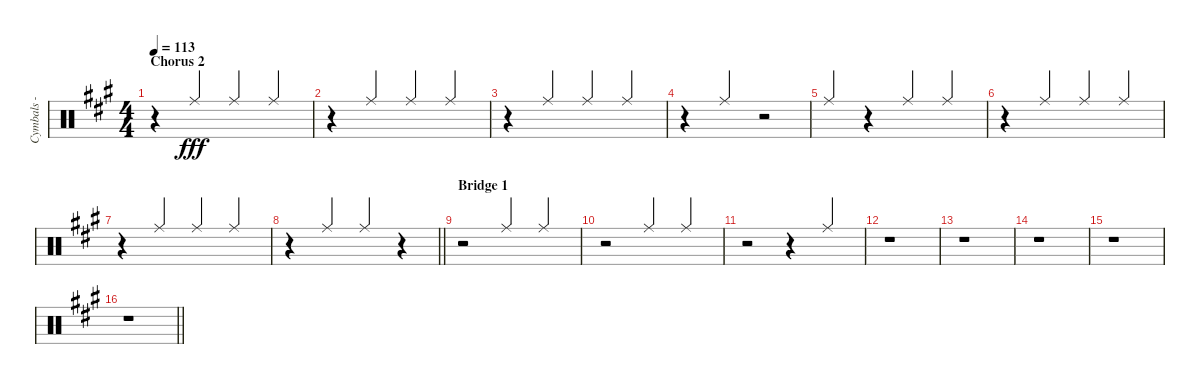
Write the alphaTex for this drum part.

\track ("Cymbals - ride" "Cymbals - ") {instrument percussion}
\staff {score}
\articulation defaults
\ts (4 4)
\section ("" "Chorus 2")
\tempo 113
\clef neutral
\ks f#minor
r.4{dy fff} "Ride (middle)".4{beam Up} "Ride (middle)".4{beam Up} "Ride (middle)".4{beam Up} |
r.4 "Ride (middle)".4{beam Up} "Ride (middle)".4{beam Up} "Ride (middle)".4{beam Up} |
r.4 "Ride (middle)".4{beam Up} "Ride (middle)".4{beam Up} "Ride (middle)".4{beam Up} |
r.4 "Ride (middle)".4{beam Up} r.2 |
"Ride (middle)".4{beam Up} r.4 "Ride (middle)".4{beam Up} "Ride (middle)".4{beam Up} |
r.4 "Ride (middle)".4{beam Up} "Ride (middle)".4{beam Up} "Ride (middle)".4{beam Up} |
r.4 "Ride (middle)".4{beam Up} "Ride (middle)".4{beam Up} "Ride (middle)".4{beam Up} |
\barLineRight lightlight
r.4 "Ride (middle)".4{beam Up} "Ride (middle)".4{beam Up} r.4 |
\section ("" "Bridge 1")
r.2 "Ride (middle)".4{beam Up} "Ride (middle)".4{beam Up} |
r.2 "Ride (middle)".4{beam Up} "Ride (middle)".4{beam Up} |
r.2 r.4 "Ride (middle)".4{beam Up} |
r.1 |
r.1 |
r.1 |
r.1 |
\barLineRight lightlight
r.1
